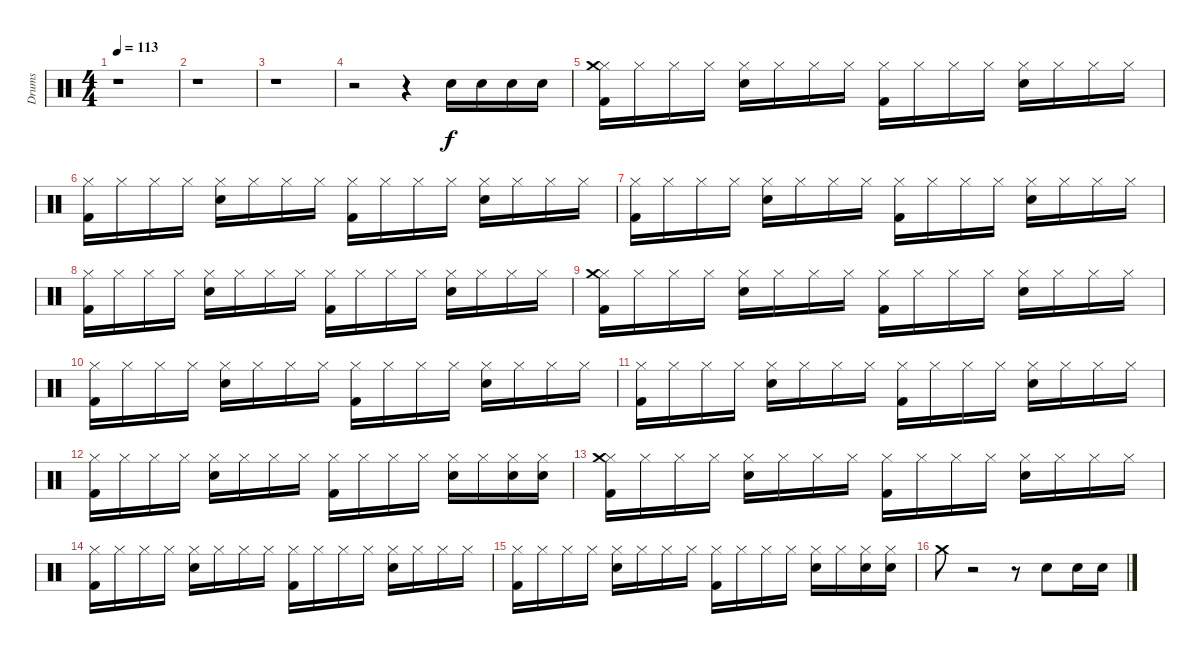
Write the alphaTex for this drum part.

\track ("Drums" "Drums") {instrument percussion}
\staff {score}
\articulation defaults
\ts (4 4)
\tempo 113
\clef neutral
\ks c
r.1{dy f} |
r.1 |
r.1 |
r.2 r.4 "Electric Snare (hit)".16 "Electric Snare (hit)".16 "Electric Snare (hit)".16 "Electric Snare (hit)".16 |
("Hi-Hat (closed)" "Kick (hit) 2" "Crash medium (hit)").16 "Hi-Hat (closed)".16 "Hi-Hat (closed)".16 "Hi-Hat (closed)".16 ("Hi-Hat (closed)" "Electric Snare (hit)").16 "Hi-Hat (closed)".16 "Hi-Hat (closed)".16 "Hi-Hat (closed)".16 ("Hi-Hat (closed)" "Kick (hit) 2").16 "Hi-Hat (closed)".16 "Hi-Hat (closed)".16 "Hi-Hat (closed)".16 ("Hi-Hat (closed)" "Electric Snare (hit)").16 "Hi-Hat (closed)".16 "Hi-Hat (closed)".16 "Hi-Hat (closed)".16 |
("Hi-Hat (closed)" "Kick (hit) 2").16 "Hi-Hat (closed)".16 "Hi-Hat (closed)".16 "Hi-Hat (closed)".16 ("Hi-Hat (closed)" "Electric Snare (hit)").16 "Hi-Hat (closed)".16 "Hi-Hat (closed)".16 "Hi-Hat (closed)".16 ("Hi-Hat (closed)" "Kick (hit) 2").16 "Hi-Hat (closed)".16 "Hi-Hat (closed)".16 "Hi-Hat (closed)".16 ("Hi-Hat (closed)" "Electric Snare (hit)").16 "Hi-Hat (closed)".16 "Hi-Hat (closed)".16 "Hi-Hat (closed)".16 |
("Hi-Hat (closed)" "Kick (hit) 2").16 "Hi-Hat (closed)".16 "Hi-Hat (closed)".16 "Hi-Hat (closed)".16 ("Hi-Hat (closed)" "Electric Snare (hit)").16 "Hi-Hat (closed)".16 "Hi-Hat (closed)".16 "Hi-Hat (closed)".16 ("Hi-Hat (closed)" "Kick (hit) 2").16 "Hi-Hat (closed)".16 "Hi-Hat (closed)".16 "Hi-Hat (closed)".16 ("Hi-Hat (closed)" "Electric Snare (hit)").16 "Hi-Hat (closed)".16 "Hi-Hat (closed)".16 "Hi-Hat (closed)".16 |
("Hi-Hat (closed)" "Kick (hit) 2").16 "Hi-Hat (closed)".16 "Hi-Hat (closed)".16 "Hi-Hat (closed)".16 ("Hi-Hat (closed)" "Electric Snare (hit)").16 "Hi-Hat (closed)".16 "Hi-Hat (closed)".16 "Hi-Hat (closed)".16 ("Hi-Hat (closed)" "Kick (hit) 2").16 "Hi-Hat (closed)".16 "Hi-Hat (closed)".16 "Hi-Hat (closed)".16 ("Hi-Hat (closed)" "Electric Snare (hit)").16 "Hi-Hat (closed)".16 "Hi-Hat (closed)".16 "Hi-Hat (closed)".16 |
("Hi-Hat (closed)" "Kick (hit) 2" "Crash medium (hit)").16 "Hi-Hat (closed)".16 "Hi-Hat (closed)".16 "Hi-Hat (closed)".16 ("Hi-Hat (closed)" "Electric Snare (hit)").16 "Hi-Hat (closed)".16 "Hi-Hat (closed)".16 "Hi-Hat (closed)".16 ("Hi-Hat (closed)" "Kick (hit) 2").16 "Hi-Hat (closed)".16 "Hi-Hat (closed)".16 "Hi-Hat (closed)".16 ("Hi-Hat (closed)" "Electric Snare (hit)").16 "Hi-Hat (closed)".16 "Hi-Hat (closed)".16 "Hi-Hat (closed)".16 |
("Hi-Hat (closed)" "Kick (hit) 2").16 "Hi-Hat (closed)".16 "Hi-Hat (closed)".16 "Hi-Hat (closed)".16 ("Hi-Hat (closed)" "Electric Snare (hit)").16 "Hi-Hat (closed)".16 "Hi-Hat (closed)".16 "Hi-Hat (closed)".16 ("Hi-Hat (closed)" "Kick (hit) 2").16 "Hi-Hat (closed)".16 "Hi-Hat (closed)".16 "Hi-Hat (closed)".16 ("Hi-Hat (closed)" "Electric Snare (hit)").16 "Hi-Hat (closed)".16 "Hi-Hat (closed)".16 "Hi-Hat (closed)".16 |
("Hi-Hat (closed)" "Kick (hit) 2").16 "Hi-Hat (closed)".16 "Hi-Hat (closed)".16 "Hi-Hat (closed)".16 ("Hi-Hat (closed)" "Electric Snare (hit)").16 "Hi-Hat (closed)".16 "Hi-Hat (closed)".16 "Hi-Hat (closed)".16 ("Hi-Hat (closed)" "Kick (hit) 2").16 "Hi-Hat (closed)".16 "Hi-Hat (closed)".16 "Hi-Hat (closed)".16 ("Hi-Hat (closed)" "Electric Snare (hit)").16 "Hi-Hat (closed)".16 "Hi-Hat (closed)".16 "Hi-Hat (closed)".16 |
("Hi-Hat (closed)" "Kick (hit) 2").16 "Hi-Hat (closed)".16 "Hi-Hat (closed)".16 "Hi-Hat (closed)".16 ("Hi-Hat (closed)" "Electric Snare (hit)").16 "Hi-Hat (closed)".16 "Hi-Hat (closed)".16 "Hi-Hat (closed)".16 ("Hi-Hat (closed)" "Kick (hit) 2").16 "Hi-Hat (closed)".16 "Hi-Hat (closed)".16 "Hi-Hat (closed)".16 ("Hi-Hat (closed)" "Electric Snare (hit)").16 "Hi-Hat (closed)".16 ("Hi-Hat (closed)" "Electric Snare (hit)").16 ("Hi-Hat (closed)" "Electric Snare (hit)").16 |
("Hi-Hat (closed)" "Crash medium (hit)" "Kick (hit) 2").16 "Hi-Hat (closed)".16 "Hi-Hat (closed)".16 "Hi-Hat (closed)".16 ("Hi-Hat (closed)" "Electric Snare (hit)").16 "Hi-Hat (closed)".16 "Hi-Hat (closed)".16 "Hi-Hat (closed)".16 ("Hi-Hat (closed)" "Kick (hit) 2").16 "Hi-Hat (closed)".16 "Hi-Hat (closed)".16 "Hi-Hat (closed)".16 ("Hi-Hat (closed)" "Electric Snare (hit)").16 "Hi-Hat (closed)".16 "Hi-Hat (closed)".16 "Hi-Hat (closed)".16 |
("Hi-Hat (closed)" "Kick (hit) 2").16 "Hi-Hat (closed)".16 "Hi-Hat (closed)".16 "Hi-Hat (closed)".16 ("Hi-Hat (closed)" "Electric Snare (hit)").16 "Hi-Hat (closed)".16 "Hi-Hat (closed)".16 "Hi-Hat (closed)".16 ("Hi-Hat (closed)" "Kick (hit) 2").16 "Hi-Hat (closed)".16 "Hi-Hat (closed)".16 "Hi-Hat (closed)".16 ("Hi-Hat (closed)" "Electric Snare (hit)").16 "Hi-Hat (closed)".16 "Hi-Hat (closed)".16 "Hi-Hat (closed)".16 |
("Hi-Hat (closed)" "Kick (hit) 2").16 "Hi-Hat (closed)".16 "Hi-Hat (closed)".16 "Hi-Hat (closed)".16 ("Hi-Hat (closed)" "Electric Snare (hit)").16 "Hi-Hat (closed)".16 "Hi-Hat (closed)".16 "Hi-Hat (closed)".16 ("Hi-Hat (closed)" "Kick (hit) 2").16 "Hi-Hat (closed)".16 "Hi-Hat (closed)".16 "Hi-Hat (closed)".16 ("Hi-Hat (closed)" "Electric Snare (hit)").16 "Hi-Hat (closed)".16 ("Hi-Hat (closed)" "Electric Snare (hit)").16 ("Hi-Hat (closed)" "Electric Snare (hit)").16 |
"Crash medium (hit)".8 r.2 r.8 "Electric Snare (hit)".8 "Electric Snare (hit)".16 "Electric Snare (hit)".16
